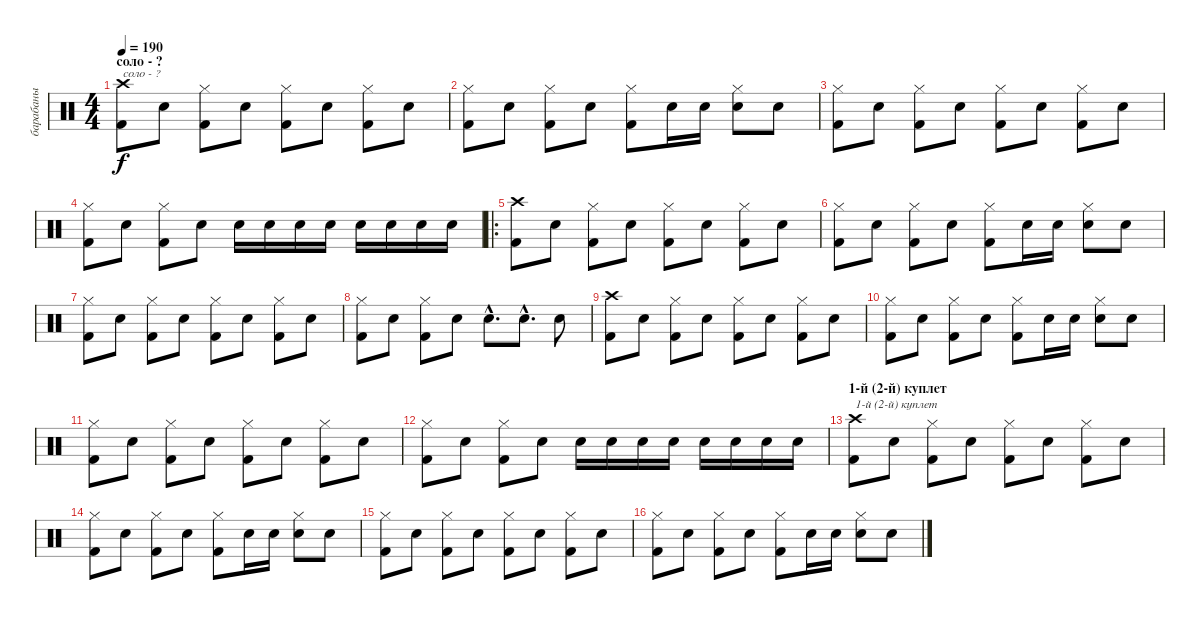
\track ("барабаны" "барабаны") {instrument percussion}
\staff {score}
\articulation defaults
\ts (4 4)
\section ("" "соло - ?")
\tempo 190
\clef neutral
\ks c
("Crash high (hit)" "Kick (hit) 2").8{txt "соло - ?" dy f} "Snare (hit) 2".8 ("Hi-Hat (closed)" "Kick (hit) 2").8 "Snare (hit) 2".8 ("Hi-Hat (closed)" "Kick (hit) 2").8 "Snare (hit) 2".8 ("Hi-Hat (closed)" "Kick (hit) 2").8 "Snare (hit) 2".8 |
("Hi-Hat (closed)" "Kick (hit) 2").8 "Snare (hit) 2".8 ("Hi-Hat (closed)" "Kick (hit) 2").8 "Snare (hit) 2".8 ("Hi-Hat (closed)" "Kick (hit) 2").8 "Snare (hit) 2".16 "Snare (hit) 2".16 ("Hi-Hat (closed)" "Snare (hit) 2").8 "Snare (hit) 2".8 |
("Hi-Hat (closed)" "Kick (hit) 2").8 "Snare (hit) 2".8 ("Hi-Hat (closed)" "Kick (hit) 2").8 "Snare (hit) 2".8 ("Hi-Hat (closed)" "Kick (hit) 2").8 "Snare (hit) 2".8 ("Hi-Hat (closed)" "Kick (hit) 2").8 "Snare (hit) 2".8 |
("Hi-Hat (closed)" "Kick (hit) 2").8 "Snare (hit) 2".8 ("Hi-Hat (closed)" "Kick (hit) 2").8 "Snare (hit) 2".8 "Snare (hit) 2".16 "Snare (hit) 2".16 "Snare (hit) 2".16 "Snare (hit) 2".16 "Snare (hit) 2".16 "Electric Snare (hit)".16 "Electric Snare (hit)".16 "Electric Snare (hit)".16 |
\ro
("Crash high (hit)" "Kick (hit) 2").8 "Snare (hit) 2".8 ("Hi-Hat (closed)" "Kick (hit) 2").8 "Snare (hit) 2".8 ("Hi-Hat (closed)" "Kick (hit) 2").8 "Snare (hit) 2".8 ("Hi-Hat (closed)" "Kick (hit) 2").8 "Snare (hit) 2".8 |
("Hi-Hat (closed)" "Kick (hit) 2").8 "Snare (hit) 2".8 ("Hi-Hat (closed)" "Kick (hit) 2").8 "Snare (hit) 2".8 ("Hi-Hat (closed)" "Kick (hit) 2").8 "Snare (hit) 2".16 "Snare (hit) 2".16 ("Hi-Hat (closed)" "Snare (hit) 2").8 "Snare (hit) 2".8 |
("Hi-Hat (closed)" "Kick (hit) 2").8 "Snare (hit) 2".8 ("Hi-Hat (closed)" "Kick (hit) 2").8 "Snare (hit) 2".8 ("Hi-Hat (closed)" "Kick (hit) 2").8 "Snare (hit) 2".8 ("Hi-Hat (closed)" "Kick (hit) 2").8 "Snare (hit) 2".8 |
("Hi-Hat (closed)" "Kick (hit) 2").8 "Snare (hit) 2".8 ("Hi-Hat (closed)" "Kick (hit) 2").8 "Snare (hit) 2".8 "Snare (hit) 2"{hac}.8{d} "Electric Snare (hit)"{hac}.8{d} "Electric Snare (hit)".8 |
("Crash high (hit)" "Kick (hit) 2").8 "Snare (hit) 2".8 ("Hi-Hat (closed)" "Kick (hit) 2").8 "Snare (hit) 2".8 ("Hi-Hat (closed)" "Kick (hit) 2").8 "Snare (hit) 2".8 ("Hi-Hat (closed)" "Kick (hit) 2").8 "Snare (hit) 2".8 |
("Hi-Hat (closed)" "Kick (hit) 2").8 "Snare (hit) 2".8 ("Hi-Hat (closed)" "Kick (hit) 2").8 "Snare (hit) 2".8 ("Hi-Hat (closed)" "Kick (hit) 2").8 "Snare (hit) 2".16 "Snare (hit) 2".16 ("Hi-Hat (closed)" "Snare (hit) 2").8 "Snare (hit) 2".8 |
("Hi-Hat (closed)" "Kick (hit) 2").8 "Snare (hit) 2".8 ("Hi-Hat (closed)" "Kick (hit) 2").8 "Snare (hit) 2".8 ("Hi-Hat (closed)" "Kick (hit) 2").8 "Snare (hit) 2".8 ("Hi-Hat (closed)" "Kick (hit) 2").8 "Snare (hit) 2".8 |
("Hi-Hat (closed)" "Kick (hit) 2").8 "Snare (hit) 2".8 ("Hi-Hat (closed)" "Kick (hit) 2").8 "Snare (hit) 2".8 "Snare (hit) 2".16 "Snare (hit) 2".16 "Snare (hit) 2".16 "Snare (hit) 2".16 "Snare (hit) 2".16 "Electric Snare (hit)".16 "Electric Snare (hit)".16 "Electric Snare (hit)".16 |
\section ("" "1-й (2-й) куплет")
("Crash high (hit)" "Kick (hit) 2").8{txt "1-й (2-й) куплет"} "Snare (hit) 2".8 ("Hi-Hat (closed)" "Kick (hit) 2").8 "Snare (hit) 2".8 ("Hi-Hat (closed)" "Kick (hit) 2").8 "Snare (hit) 2".8 ("Hi-Hat (closed)" "Kick (hit) 2").8 "Snare (hit) 2".8 |
("Hi-Hat (closed)" "Kick (hit) 2").8 "Snare (hit) 2".8 ("Hi-Hat (closed)" "Kick (hit) 2").8 "Snare (hit) 2".8 ("Hi-Hat (closed)" "Kick (hit) 2").8 "Snare (hit) 2".16 "Snare (hit) 2".16 ("Hi-Hat (closed)" "Snare (hit) 2").8 "Snare (hit) 2".8 |
("Hi-Hat (closed)" "Kick (hit) 2").8 "Snare (hit) 2".8 ("Hi-Hat (closed)" "Kick (hit) 2").8 "Snare (hit) 2".8 ("Hi-Hat (closed)" "Kick (hit) 2").8 "Snare (hit) 2".8 ("Hi-Hat (closed)" "Kick (hit) 2").8 "Snare (hit) 2".8 |
("Hi-Hat (closed)" "Kick (hit) 2").8 "Snare (hit) 2".8 ("Hi-Hat (closed)" "Kick (hit) 2").8 "Snare (hit) 2".8 ("Hi-Hat (closed)" "Kick (hit) 2").8 "Snare (hit) 2".16 "Snare (hit) 2".16 ("Hi-Hat (closed)" "Snare (hit) 2").8 "Snare (hit) 2".8
